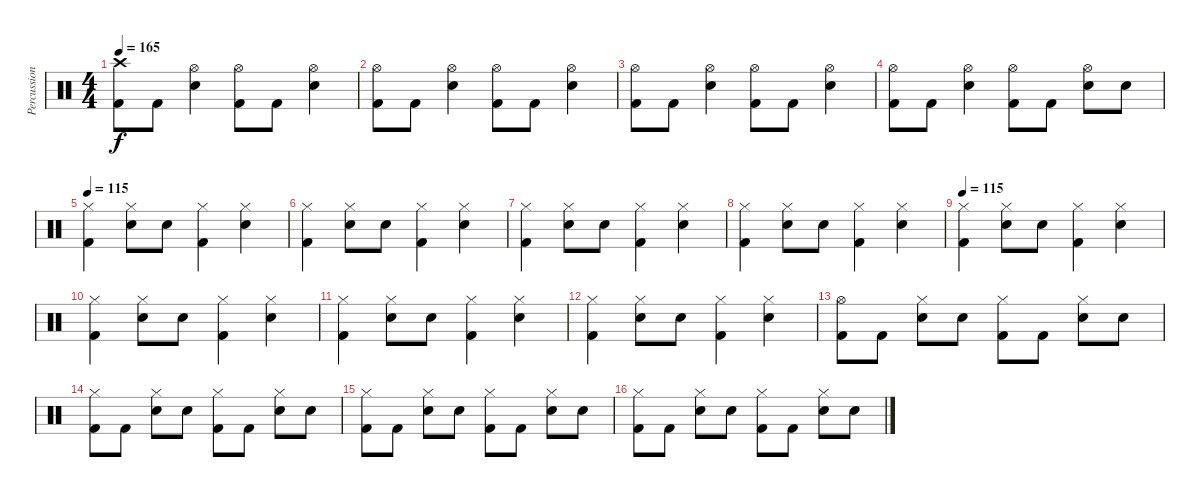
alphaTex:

\track ("Percussion" "Percussion") {instrument percussion}
\staff {score}
\articulation defaults
\ts (4 4)
\tempo 165
\clef neutral
\ks c
("Crash high (hit)" "Kick (hit) 2").8{dy f} "Kick (hit) 2".8 ("Hi-Hat (open)" "Snare (hit) 2").4 ("Hi-Hat (open)" "Kick (hit) 2").8 "Kick (hit) 2".8 ("Hi-Hat (open)" "Snare (hit) 2").4 |
("Hi-Hat (open)" "Kick (hit) 2").8 "Kick (hit) 2".8 ("Hi-Hat (open)" "Snare (hit) 2").4 ("Hi-Hat (open)" "Kick (hit) 2").8 "Kick (hit) 2".8 ("Hi-Hat (open)" "Snare (hit) 2").4 |
("Hi-Hat (open)" "Kick (hit) 2").8 "Kick (hit) 2".8 ("Hi-Hat (open)" "Snare (hit) 2").4 ("Hi-Hat (open)" "Kick (hit) 2").8 "Kick (hit) 2".8 ("Hi-Hat (open)" "Snare (hit) 2").4 |
("Hi-Hat (open)" "Kick (hit) 2").8 "Kick (hit) 2".8 ("Hi-Hat (open)" "Snare (hit) 2").4 ("Hi-Hat (open)" "Kick (hit) 2").8 "Kick (hit) 2".8 ("Hi-Hat (open)" "Snare (hit) 2").8 "Snare (hit) 2".8 |
\tempo 115
("Hi-Hat (closed)" "Kick (hit) 2").4 ("Hi-Hat (closed)" "Snare (hit) 2").8 "Snare (hit) 2".8 ("Hi-Hat (closed)" "Kick (hit) 2").4 ("Hi-Hat (closed)" "Snare (hit) 2").4 |
("Hi-Hat (closed)" "Kick (hit) 2").4 ("Hi-Hat (closed)" "Snare (hit) 2").8 "Snare (hit) 2".8 ("Hi-Hat (closed)" "Kick (hit) 2").4 ("Hi-Hat (closed)" "Snare (hit) 2").4 |
("Hi-Hat (closed)" "Kick (hit) 2").4 ("Hi-Hat (closed)" "Snare (hit) 2").8 "Snare (hit) 2".8 ("Hi-Hat (closed)" "Kick (hit) 2").4 ("Hi-Hat (closed)" "Snare (hit) 2").4 |
("Hi-Hat (closed)" "Kick (hit) 2").4 ("Hi-Hat (closed)" "Snare (hit) 2").8 "Snare (hit) 2".8 ("Hi-Hat (closed)" "Kick (hit) 2").4 ("Hi-Hat (closed)" "Snare (hit) 2").4 |
\tempo 115
("Hi-Hat (closed)" "Kick (hit) 2").4 ("Hi-Hat (closed)" "Snare (hit) 2").8 "Snare (hit) 2".8 ("Hi-Hat (closed)" "Kick (hit) 2").4 ("Hi-Hat (closed)" "Snare (hit) 2").4 |
("Hi-Hat (closed)" "Kick (hit) 2").4 ("Hi-Hat (closed)" "Snare (hit) 2").8 "Snare (hit) 2".8 ("Hi-Hat (closed)" "Kick (hit) 2").4 ("Hi-Hat (closed)" "Snare (hit) 2").4 |
("Hi-Hat (closed)" "Kick (hit) 2").4 ("Hi-Hat (closed)" "Snare (hit) 2").8 "Snare (hit) 2".8 ("Hi-Hat (closed)" "Kick (hit) 2").4 ("Hi-Hat (closed)" "Snare (hit) 2").4 |
("Hi-Hat (closed)" "Kick (hit) 2").4 ("Hi-Hat (closed)" "Snare (hit) 2").8 "Snare (hit) 2".8 ("Hi-Hat (closed)" "Kick (hit) 2").4 ("Hi-Hat (closed)" "Snare (hit) 2").4 |
("Hi-Hat (open)" "Kick (hit) 2").8 "Kick (hit) 2".8 ("Hi-Hat (closed)" "Snare (hit) 2").8 "Snare (hit) 2".8 ("Hi-Hat (closed)" "Kick (hit) 2").8 "Kick (hit) 2".8 ("Hi-Hat (closed)" "Snare (hit) 2").8 "Snare (hit) 2".8 |
("Hi-Hat (closed)" "Kick (hit) 2").8 "Kick (hit) 2".8 ("Hi-Hat (closed)" "Snare (hit) 2").8 "Snare (hit) 2".8 ("Hi-Hat (closed)" "Kick (hit) 2").8 "Kick (hit) 2".8 ("Hi-Hat (closed)" "Snare (hit) 2").8 "Snare (hit) 2".8 |
("Hi-Hat (closed)" "Kick (hit) 2").8 "Kick (hit) 2".8 ("Hi-Hat (closed)" "Snare (hit) 2").8 "Snare (hit) 2".8 ("Hi-Hat (closed)" "Kick (hit) 2").8 "Kick (hit) 2".8 ("Hi-Hat (closed)" "Snare (hit) 2").8 "Snare (hit) 2".8 |
("Hi-Hat (closed)" "Kick (hit) 2").8 "Kick (hit) 2".8 ("Hi-Hat (closed)" "Snare (hit) 2").8 "Snare (hit) 2".8 ("Hi-Hat (closed)" "Kick (hit) 2").8 "Kick (hit) 2".8 ("Hi-Hat (closed)" "Snare (hit) 2").8 "Snare (hit) 2".8
